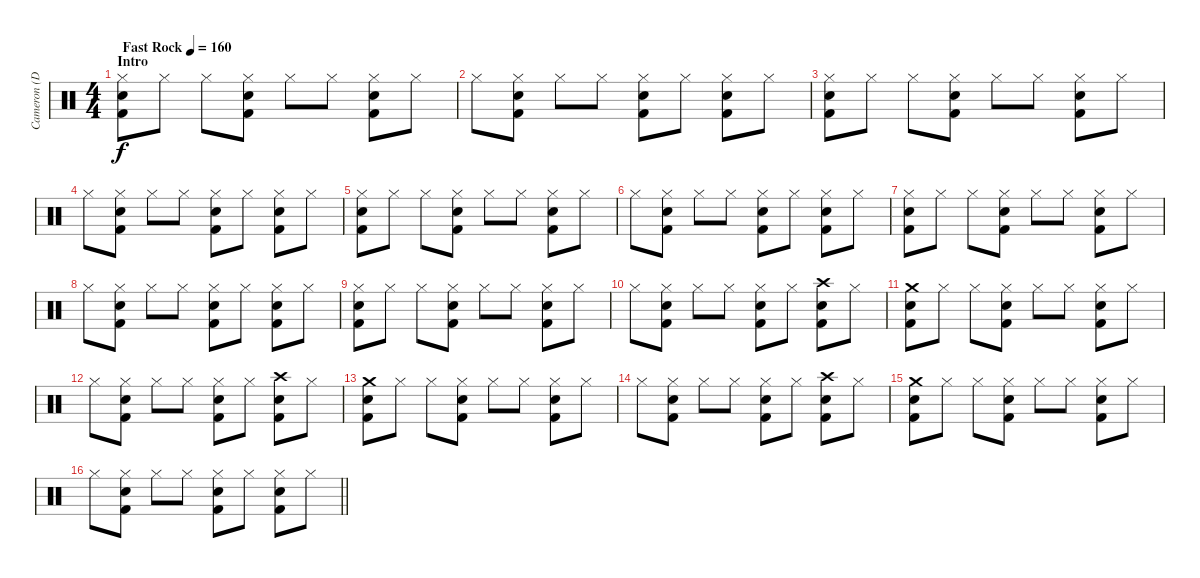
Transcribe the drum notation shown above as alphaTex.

\track ("Cameron (Drums)" "Cameron (D") {instrument percussion}
\staff {score}
\articulation defaults
\ts (4 4)
\section ("" "Intro")
\tempo (160 "Fast Rock")
\clef neutral
\ks c
("Hi-Hat (closed)" "Snare (hit) 2" "Kick (hit) 2").8{dy f} "Hi-Hat (closed)".8 "Hi-Hat (closed)".8 ("Hi-Hat (closed)" "Snare (hit) 2" "Kick (hit) 2").8 "Hi-Hat (closed)".8 "Hi-Hat (closed)".8 ("Hi-Hat (closed)" "Snare (hit) 2" "Kick (hit) 2").8 "Hi-Hat (closed)".8 |
"Hi-Hat (closed)".8 ("Hi-Hat (closed)" "Snare (hit) 2" "Kick (hit) 2").8 "Hi-Hat (closed)".8 "Hi-Hat (closed)".8 ("Hi-Hat (closed)" "Snare (hit) 2" "Kick (hit) 2").8 "Hi-Hat (closed)".8 ("Hi-Hat (closed)" "Snare (hit) 2" "Kick (hit) 2").8 "Hi-Hat (closed)".8 |
("Hi-Hat (closed)" "Snare (hit) 2" "Kick (hit) 2").8 "Hi-Hat (closed)".8 "Hi-Hat (closed)".8 ("Hi-Hat (closed)" "Snare (hit) 2" "Kick (hit) 2").8 "Hi-Hat (closed)".8 "Hi-Hat (closed)".8 ("Hi-Hat (closed)" "Snare (hit) 2" "Kick (hit) 2").8 "Hi-Hat (closed)".8 |
"Hi-Hat (closed)".8 ("Hi-Hat (closed)" "Snare (hit) 2" "Kick (hit) 2").8 "Hi-Hat (closed)".8 "Hi-Hat (closed)".8 ("Hi-Hat (closed)" "Snare (hit) 2" "Kick (hit) 2").8 "Hi-Hat (closed)".8 ("Hi-Hat (closed)" "Snare (hit) 2" "Kick (hit) 2").8 "Hi-Hat (closed)".8 |
("Hi-Hat (closed)" "Snare (hit) 2" "Kick (hit) 2").8 "Hi-Hat (closed)".8 "Hi-Hat (closed)".8 ("Hi-Hat (closed)" "Snare (hit) 2" "Kick (hit) 2").8 "Hi-Hat (closed)".8 "Hi-Hat (closed)".8 ("Hi-Hat (closed)" "Snare (hit) 2" "Kick (hit) 2").8 "Hi-Hat (closed)".8 |
"Hi-Hat (closed)".8 ("Hi-Hat (closed)" "Snare (hit) 2" "Kick (hit) 2").8 "Hi-Hat (closed)".8 "Hi-Hat (closed)".8 ("Hi-Hat (closed)" "Snare (hit) 2" "Kick (hit) 2").8 "Hi-Hat (closed)".8 ("Hi-Hat (closed)" "Snare (hit) 2" "Kick (hit) 2").8 "Hi-Hat (closed)".8 |
("Hi-Hat (closed)" "Snare (hit) 2" "Kick (hit) 2").8 "Hi-Hat (closed)".8 "Hi-Hat (closed)".8 ("Hi-Hat (closed)" "Snare (hit) 2" "Kick (hit) 2").8 "Hi-Hat (closed)".8 "Hi-Hat (closed)".8 ("Hi-Hat (closed)" "Snare (hit) 2" "Kick (hit) 2").8 "Hi-Hat (closed)".8 |
"Hi-Hat (closed)".8 ("Hi-Hat (closed)" "Snare (hit) 2" "Kick (hit) 2").8 "Hi-Hat (closed)".8 "Hi-Hat (closed)".8 ("Hi-Hat (closed)" "Snare (hit) 2" "Kick (hit) 2").8 "Hi-Hat (closed)".8 ("Hi-Hat (closed)" "Snare (hit) 2" "Kick (hit) 2").8 "Hi-Hat (closed)".8 |
("Hi-Hat (closed)" "Snare (hit) 2" "Kick (hit) 2").8 "Hi-Hat (closed)".8 "Hi-Hat (closed)".8 ("Hi-Hat (closed)" "Snare (hit) 2" "Kick (hit) 2").8 "Hi-Hat (closed)".8 "Hi-Hat (closed)".8 ("Hi-Hat (closed)" "Snare (hit) 2" "Kick (hit) 2").8 "Hi-Hat (closed)".8 |
"Hi-Hat (closed)".8 ("Hi-Hat (closed)" "Snare (hit) 2" "Kick (hit) 2").8 "Hi-Hat (closed)".8 "Hi-Hat (closed)".8 ("Hi-Hat (closed)" "Snare (hit) 2" "Kick (hit) 2").8 "Hi-Hat (closed)".8 ("Crash high (hit)" "Snare (hit) 2" "Kick (hit) 2").8 "Hi-Hat (closed)".8 |
("Crash medium (hit)" "Snare (hit) 2" "Kick (hit) 2").8 "Hi-Hat (closed)".8 "Hi-Hat (closed)".8 ("Hi-Hat (closed)" "Snare (hit) 2" "Kick (hit) 2").8 "Hi-Hat (closed)".8 "Hi-Hat (closed)".8 ("Hi-Hat (closed)" "Snare (hit) 2" "Kick (hit) 2").8 "Hi-Hat (closed)".8 |
"Hi-Hat (closed)".8 ("Hi-Hat (closed)" "Snare (hit) 2" "Kick (hit) 2").8 "Hi-Hat (closed)".8 "Hi-Hat (closed)".8 ("Hi-Hat (closed)" "Snare (hit) 2" "Kick (hit) 2").8 "Hi-Hat (closed)".8 ("Crash high (hit)" "Snare (hit) 2" "Kick (hit) 2").8 "Hi-Hat (closed)".8 |
("Crash medium (hit)" "Snare (hit) 2" "Kick (hit) 2").8 "Hi-Hat (closed)".8 "Hi-Hat (closed)".8 ("Hi-Hat (closed)" "Snare (hit) 2" "Kick (hit) 2").8 "Hi-Hat (closed)".8 "Hi-Hat (closed)".8 ("Hi-Hat (closed)" "Snare (hit) 2" "Kick (hit) 2").8 "Hi-Hat (closed)".8 |
"Hi-Hat (closed)".8 ("Hi-Hat (closed)" "Snare (hit) 2" "Kick (hit) 2").8 "Hi-Hat (closed)".8 "Hi-Hat (closed)".8 ("Hi-Hat (closed)" "Snare (hit) 2" "Kick (hit) 2").8 "Hi-Hat (closed)".8 ("Crash high (hit)" "Snare (hit) 2" "Kick (hit) 2").8 "Hi-Hat (closed)".8 |
("Crash medium (hit)" "Snare (hit) 2" "Kick (hit) 2").8 "Hi-Hat (closed)".8 "Hi-Hat (closed)".8 ("Hi-Hat (closed)" "Snare (hit) 2" "Kick (hit) 2").8 "Hi-Hat (closed)".8 "Hi-Hat (closed)".8 ("Hi-Hat (closed)" "Snare (hit) 2" "Kick (hit) 2").8 "Hi-Hat (closed)".8 |
\barLineRight lightlight "Hi-Hat (closed)".8
("Hi-Hat (closed)" "Snare (hit) 2" "Kick (hit) 2").8 "Hi-Hat (closed)".8 "Hi-Hat (closed)".8 ("Hi-Hat (closed)" "Snare (hit) 2" "Kick (hit) 2").8 "Hi-Hat (closed)".8 ("Hi-Hat (closed)" "Snare (hit) 2" "Kick (hit) 2").8 "Hi-Hat (closed)".8
